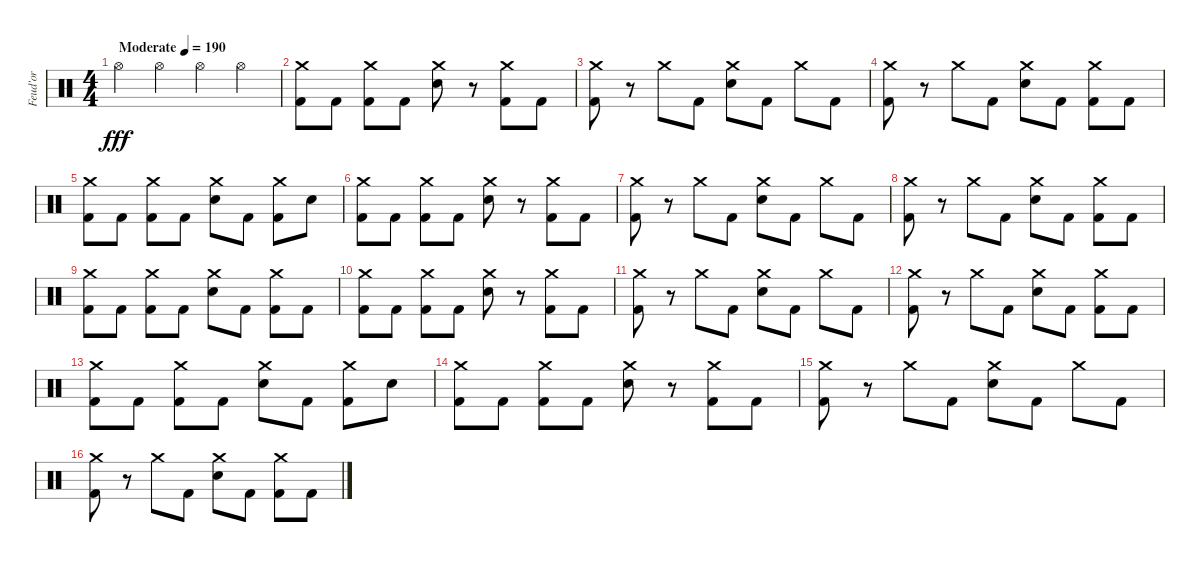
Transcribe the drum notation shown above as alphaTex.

\track ("Feud'or" "Feud'or") {instrument percussion}
\staff {score}
\articulation defaults
\ts (4 4)
\tempo (190 "Moderate")
\clef neutral
\ks c "Hi-Hat (open)".4{dy fff} "Hi-Hat (open)".4 "Hi-Hat (open)".4 "Hi-Hat (open)".4
|
("Crash medium (hit)" "Kick (hit) 2").8 "Kick (hit) 2".8 ("Crash medium (hit)" "Kick (hit) 2").8 "Kick (hit) 2".8 ("Crash medium (hit)" "Snare (hit) 2").8 r.8 ("Crash medium (hit)" "Kick (hit) 2").8 "Kick (hit) 2".8 |
("Crash medium (hit)" "Kick (hit) 2").8 r.8 "Crash medium (hit)".8 "Kick (hit) 2".8 ("Crash medium (hit)" "Snare (hit) 2").8 "Kick (hit) 2".8 "Crash medium (hit)".8 "Kick (hit) 2".8 |
("Crash medium (hit)" "Kick (hit) 2").8 r.8 "Crash medium (hit)".8 "Kick (hit) 2".8 ("Crash medium (hit)" "Snare (hit) 2").8 "Kick (hit) 2".8 ("Crash medium (hit)" "Kick (hit) 2").8 "Kick (hit) 2".8 |
("Crash medium (hit)" "Kick (hit) 2").8 "Kick (hit) 2".8 ("Crash medium (hit)" "Kick (hit) 2").8 "Kick (hit) 2".8 ("Crash medium (hit)" "Snare (hit) 2").8 "Kick (hit) 2".8 ("Crash medium (hit)" "Kick (hit) 2").8 "Snare (hit) 2".8 |
("Crash medium (hit)" "Kick (hit) 2").8 "Kick (hit) 2".8 ("Crash medium (hit)" "Kick (hit) 2").8 "Kick (hit) 2".8 ("Crash medium (hit)" "Snare (hit) 2").8 r.8 ("Crash medium (hit)" "Kick (hit) 2").8 "Kick (hit) 2".8 |
("Crash medium (hit)" "Kick (hit) 2").8 r.8 "Crash medium (hit)".8 "Kick (hit) 2".8 ("Crash medium (hit)" "Snare (hit) 2").8 "Kick (hit) 2".8 "Crash medium (hit)".8 "Kick (hit) 2".8 |
("Crash medium (hit)" "Kick (hit) 2").8 r.8 "Crash medium (hit)".8 "Kick (hit) 2".8 ("Crash medium (hit)" "Snare (hit) 2").8 "Kick (hit) 2".8 ("Crash medium (hit)" "Kick (hit) 2").8 "Kick (hit) 2".8 |
("Crash medium (hit)" "Kick (hit) 2").8 "Kick (hit) 2".8 ("Crash medium (hit)" "Kick (hit) 2").8 "Kick (hit) 2".8 ("Crash medium (hit)" "Snare (hit) 2").8 "Kick (hit) 2".8 ("Crash medium (hit)" "Kick (hit) 2").8 "Kick (hit) 2".8 |
("Crash medium (hit)" "Kick (hit) 2").8 "Kick (hit) 2".8 ("Crash medium (hit)" "Kick (hit) 2").8 "Kick (hit) 2".8 ("Crash medium (hit)" "Snare (hit) 2").8 r.8 ("Crash medium (hit)" "Kick (hit) 2").8 "Kick (hit) 2".8 |
("Crash medium (hit)" "Kick (hit) 2").8 r.8 "Crash medium (hit)".8 "Kick (hit) 2".8 ("Crash medium (hit)" "Snare (hit) 2").8 "Kick (hit) 2".8 "Crash medium (hit)".8 "Kick (hit) 2".8 |
("Crash medium (hit)" "Kick (hit) 2").8 r.8 "Crash medium (hit)".8 "Kick (hit) 2".8 ("Crash medium (hit)" "Snare (hit) 2").8 "Kick (hit) 2".8 ("Crash medium (hit)" "Kick (hit) 2").8 "Kick (hit) 2".8 |
("Crash medium (hit)" "Kick (hit) 2").8 "Kick (hit) 2".8 ("Crash medium (hit)" "Kick (hit) 2").8 "Kick (hit) 2".8 ("Crash medium (hit)" "Snare (hit) 2").8 "Kick (hit) 2".8 ("Crash medium (hit)" "Kick (hit) 2").8 "Snare (hit) 2".8 |
("Crash medium (hit)" "Kick (hit) 2").8 "Kick (hit) 2".8 ("Crash medium (hit)" "Kick (hit) 2").8 "Kick (hit) 2".8 ("Crash medium (hit)" "Snare (hit) 2").8 r.8 ("Crash medium (hit)" "Kick (hit) 2").8 "Kick (hit) 2".8 |
("Crash medium (hit)" "Kick (hit) 2").8 r.8 "Crash medium (hit)".8 "Kick (hit) 2".8 ("Crash medium (hit)" "Snare (hit) 2").8 "Kick (hit) 2".8 "Crash medium (hit)".8 "Kick (hit) 2".8 |
("Crash medium (hit)" "Kick (hit) 2").8 r.8 "Crash medium (hit)".8 "Kick (hit) 2".8 ("Crash medium (hit)" "Snare (hit) 2").8 "Kick (hit) 2".8 ("Crash medium (hit)" "Kick (hit) 2").8 "Kick (hit) 2".8
